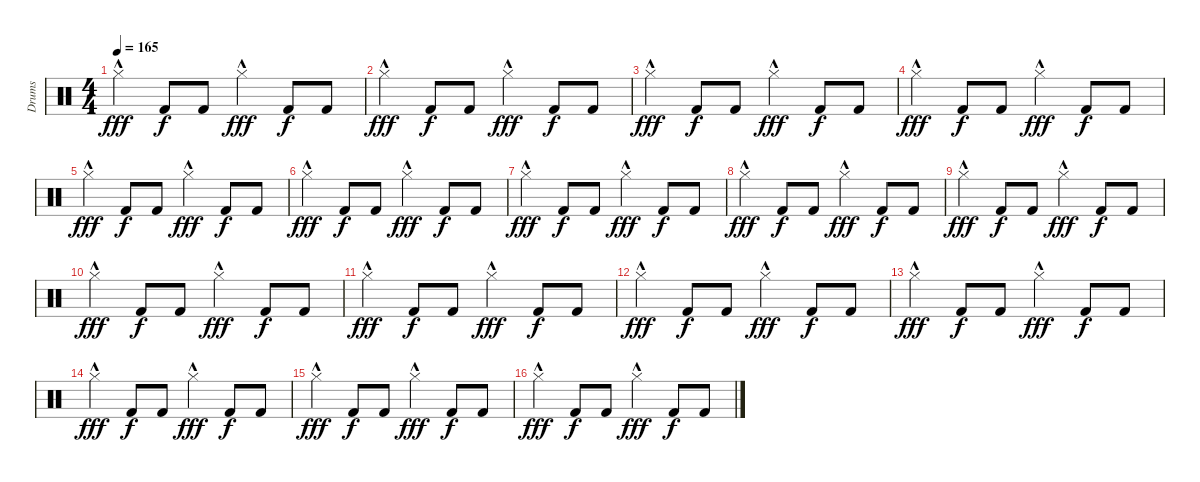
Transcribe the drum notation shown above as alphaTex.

\track ("Drums" "Drums") {instrument percussion}
\staff {score}
\articulation defaults
\ts (4 4)
\tempo 165
\clef neutral
\ks c "Hi-Hat (closed)"{hac}.4{dy fff} "Kick (hit) 2".8{dy f} "Kick (hit) 2".8 "Hi-Hat (closed)"{hac}.4{dy fff} "Kick (hit) 2".8{dy f} "Kick (hit) 2".8
|
"Hi-Hat (closed)"{hac}.4{dy fff} "Kick (hit) 2".8{dy f} "Kick (hit) 2".8 "Hi-Hat (closed)"{hac}.4{dy fff} "Kick (hit) 2".8{dy f} "Kick (hit) 2".8 |
"Hi-Hat (closed)"{hac}.4{dy fff} "Kick (hit) 2".8{dy f} "Kick (hit) 2".8 "Hi-Hat (closed)"{hac}.4{dy fff} "Kick (hit) 2".8{dy f} "Kick (hit) 2".8 |
"Hi-Hat (closed)"{hac}.4{dy fff} "Kick (hit) 2".8{dy f} "Kick (hit) 2".8 "Hi-Hat (closed)"{hac}.4{dy fff} "Kick (hit) 2".8{dy f} "Kick (hit) 2".8 |
"Hi-Hat (closed)"{hac}.4{dy fff} "Kick (hit) 2".8{dy f} "Kick (hit) 2".8 "Hi-Hat (closed)"{hac}.4{dy fff} "Kick (hit) 2".8{dy f} "Kick (hit) 2".8 |
"Hi-Hat (closed)"{hac}.4{dy fff} "Kick (hit) 2".8{dy f} "Kick (hit) 2".8 "Hi-Hat (closed)"{hac}.4{dy fff} "Kick (hit) 2".8{dy f} "Kick (hit) 2".8 |
"Hi-Hat (closed)"{hac}.4{dy fff} "Kick (hit) 2".8{dy f} "Kick (hit) 2".8 "Hi-Hat (closed)"{hac}.4{dy fff} "Kick (hit) 2".8{dy f} "Kick (hit) 2".8 |
"Hi-Hat (closed)"{hac}.4{dy fff} "Kick (hit) 2".8{dy f} "Kick (hit) 2".8 "Hi-Hat (closed)"{hac}.4{dy fff} "Kick (hit) 2".8{dy f} "Kick (hit) 2".8 |
"Hi-Hat (closed)"{hac}.4{dy fff} "Kick (hit) 2".8{dy f} "Kick (hit) 2".8 "Hi-Hat (closed)"{hac}.4{dy fff} "Kick (hit) 2".8{dy f} "Kick (hit) 2".8 |
"Hi-Hat (closed)"{hac}.4{dy fff} "Kick (hit) 2".8{dy f} "Kick (hit) 2".8 "Hi-Hat (closed)"{hac}.4{dy fff} "Kick (hit) 2".8{dy f} "Kick (hit) 2".8 |
"Hi-Hat (closed)"{hac}.4{dy fff} "Kick (hit) 2".8{dy f} "Kick (hit) 2".8 "Hi-Hat (closed)"{hac}.4{dy fff} "Kick (hit) 2".8{dy f} "Kick (hit) 2".8 |
"Hi-Hat (closed)"{hac}.4{dy fff} "Kick (hit) 2".8{dy f} "Kick (hit) 2".8 "Hi-Hat (closed)"{hac}.4{dy fff} "Kick (hit) 2".8{dy f} "Kick (hit) 2".8 |
"Hi-Hat (closed)"{hac}.4{dy fff} "Kick (hit) 2".8{dy f} "Kick (hit) 2".8 "Hi-Hat (closed)"{hac}.4{dy fff} "Kick (hit) 2".8{dy f} "Kick (hit) 2".8 |
"Hi-Hat (closed)"{hac}.4{dy fff} "Kick (hit) 2".8{dy f} "Kick (hit) 2".8 "Hi-Hat (closed)"{hac}.4{dy fff} "Kick (hit) 2".8{dy f} "Kick (hit) 2".8 |
"Hi-Hat (closed)"{hac}.4{dy fff} "Kick (hit) 2".8{dy f} "Kick (hit) 2".8 "Hi-Hat (closed)"{hac}.4{dy fff} "Kick (hit) 2".8{dy f} "Kick (hit) 2".8 |
"Hi-Hat (closed)"{hac}.4{dy fff} "Kick (hit) 2".8{dy f} "Kick (hit) 2".8 "Hi-Hat (closed)"{hac}.4{dy fff} "Kick (hit) 2".8{dy f} "Kick (hit) 2".8
